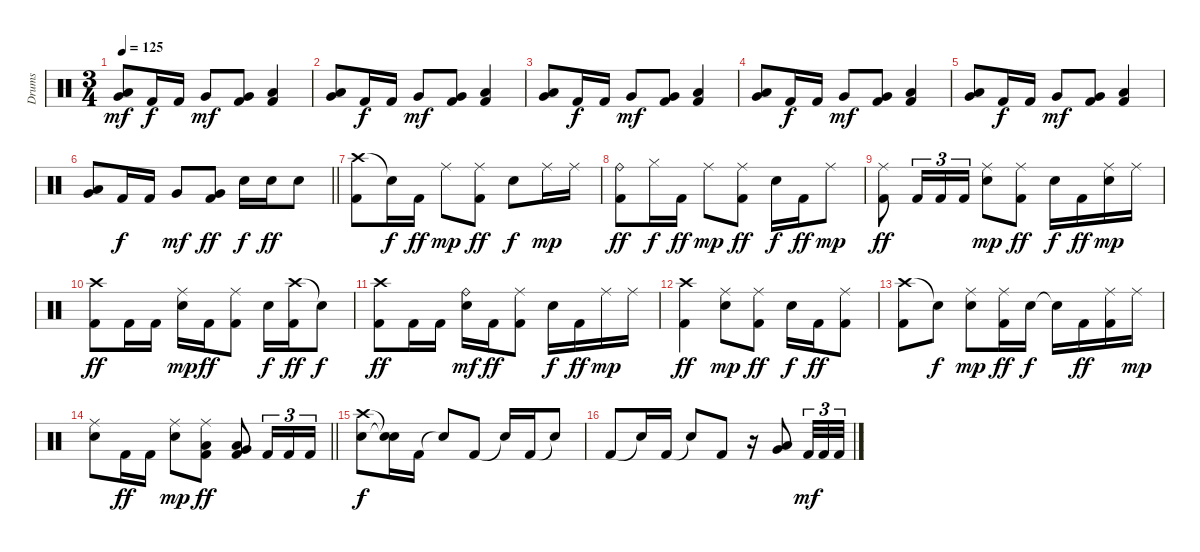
\track ("Drums" "Drums") {instrument percussion}
\staff {score}
\articulation defaults
\ts (3 4)
\tempo 125
\clef neutral
\ks c
("Low Tom (hit)" "Very Low Tom (hit)").8{dy mf} "Kick (hit) 2".16{dy f} "Kick (hit) 2".16 "Very Low Tom (hit)".8{dy mf} ("Very Low Tom (hit)" "Kick (hit) 2").8 ("Low Tom (hit)" "Kick (hit) 2").4 |
("Low Tom (hit)" "Very Low Tom (hit)").8 "Kick (hit) 2".16{dy f} "Kick (hit) 2".16 "Very Low Tom (hit)".8{dy mf} ("Very Low Tom (hit)" "Kick (hit) 2").8 ("Low Tom (hit)" "Kick (hit) 2").4 |
("Low Tom (hit)" "Very Low Tom (hit)").8 "Kick (hit) 2".16{dy f} "Kick (hit) 2".16 "Very Low Tom (hit)".8{dy mf} ("Very Low Tom (hit)" "Kick (hit) 2").8 ("Low Tom (hit)" "Kick (hit) 2").4 |
("Low Tom (hit)" "Very Low Tom (hit)").8 "Kick (hit) 2".16{dy f} "Kick (hit) 2".16 "Very Low Tom (hit)".8{dy mf} ("Very Low Tom (hit)" "Kick (hit) 2").8 ("Low Tom (hit)" "Kick (hit) 2").4 |
("Low Tom (hit)" "Very Low Tom (hit)").8 "Kick (hit) 2".16{dy f} "Kick (hit) 2".16 "Very Low Tom (hit)".8{dy mf} ("Very Low Tom (hit)" "Kick (hit) 2").8 ("Low Tom (hit)" "Kick (hit) 2").4 |
\barLineRight lightlight
("Low Tom (hit)" "Very Low Tom (hit)").8 "Kick (hit) 2".16{dy f} "Kick (hit) 2".16 "Very Low Tom (hit)".8{dy mf} ("Very Low Tom (hit)" "Kick (hit) 2").8{dy ff} "Snare (hit) 2".16{dy f} "Snare (hit) 2".16{dy ff} "Snare (hit) 2".8 |
("Crash high (hit)" "Kick (hit) 2").8 "Snare (hit)"{t}.16{dy f} "Kick (hit) 2".16{dy ff} "Ride (middle)".8{dy mp} ("Ride (middle)" "Kick (hit) 2").8{dy ff} "Snare (hit) 2".8{dy f} "Ride (middle)".16{dy mp} "Ride (middle)".16 |
("Ride (bell)" "Kick (hit) 2").8{dy ff} "Hi-Hat (closed)".16{dy f} "Kick (hit) 2".16{dy ff} "Ride (middle)".8{dy mp} ("Ride (middle)" "Kick (hit) 2").8{dy ff} "Snare (hit) 2".16{dy f} "Kick (hit) 2".16{dy ff} "Ride (middle)".8{dy mp} |
("Ride (middle)" "Kick (hit) 2").8{dy ff} "Kick (hit) 2".16{tu (3 2)} "Kick (hit) 2".16{tu (3 2)} "Kick (hit) 2".16{tu (3 2)} ("Ride (middle)" "Snare (hit) 2").8{dy mp} ("Ride (middle)" "Kick (hit) 2").8{dy ff} "Snare (hit) 2".16{dy f} "Kick (hit) 2".16{dy ff} ("Ride (middle)" "Snare (hit) 2").16{dy mp} "Ride (middle)".16 |
("Crash high (hit)" "Kick (hit) 2").8{dy ff} "Kick (hit) 2".16 "Kick (hit) 2".16 ("Ride (middle)" "Snare (hit) 2").16{dy mp} "Kick (hit) 2".16{dy ff} ("Ride (middle)" "Kick (hit) 2").8 "Snare (hit) 2".16{dy f} ("Crash high (hit)" "Kick (hit) 2").16{dy ff} "Snare (hit)"{t}.8{dy f} |
("Crash high (hit)" "Kick (hit) 2").8{dy ff} "Kick (hit) 2".16 "Kick (hit) 2".16 ("Ride (bell)" "Snare (hit) 2").16{dy mf} "Kick (hit) 2".16{dy ff} ("Ride (middle)" "Kick (hit) 2").8 "Snare (hit) 2".16{dy f} "Kick (hit) 2".16{dy ff} "Ride (middle)".16{dy mp} "Ride (middle)".16 |
("Crash high (hit)" "Kick (hit) 2").4{dy ff} ("Ride (middle)" "Snare (hit) 2").8{dy mp} ("Ride (middle)" "Kick (hit) 2").8{dy ff} "Snare (hit) 2".16{dy f} "Kick (hit) 2".16{dy ff} ("Ride (middle)" "Kick (hit) 2").8 |
("Crash high (hit)" "Kick (hit) 2").8 "Snare (hit)"{t}.8{dy f} ("Ride (middle)" "Snare (hit) 2").8{dy mp} ("Ride (middle)" "Kick (hit) 2").16{dy ff} "Snare (hit) 2".16{dy f} "Snare (hit)"{t}.16 "Kick (hit) 2".16{dy ff} ("Ride (middle)" "Kick (hit) 2").16 "Ride (middle)".16{dy mp} |
\barLineRight lightlight
("Ride (middle)" "Snare (hit) 2").8 "Kick (hit) 2".16{dy ff} "Kick (hit) 2".16 ("Ride (middle)" "Snare (hit) 2").8{dy mp} ("Ride (middle)" "Low Tom (hit)" "Kick (hit) 2").8{dy ff} ("Low Tom (hit)" "Very Low Tom (hit)" "Kick (hit) 2").8 "Kick (hit) 2".16{tu (3 2)} "Kick (hit) 2".16{tu (3 2)} "Kick (hit) 2".16{tu (3 2)} |
("Crash high (hit)" "Snare (hit) 2").8{dy f} ("Snare (hit)"{t} "Snare (hit)"{t}).16 "Kick (hit) 2".16 "Snare (hit)"{t}.8 "Kick (hit) 2".8 "Snare (hit)"{t}.16 "Kick (hit) 2".16 "Snare (hit)"{t}.8 |
"Kick (hit) 2".8 "Snare (hit)"{t}.16 "Kick (hit) 2".16 "Snare (hit)"{t}.8 "Kick (hit) 2".8 r.16 ("Low Floor Tom (hit)" "Very Low Tom (hit)").8 "Kick (hit) 2".32{tu (3 2) dy mf} "Kick (hit) 2".32{tu (3 2)} "Kick (hit) 2".32{tu (3 2)}
